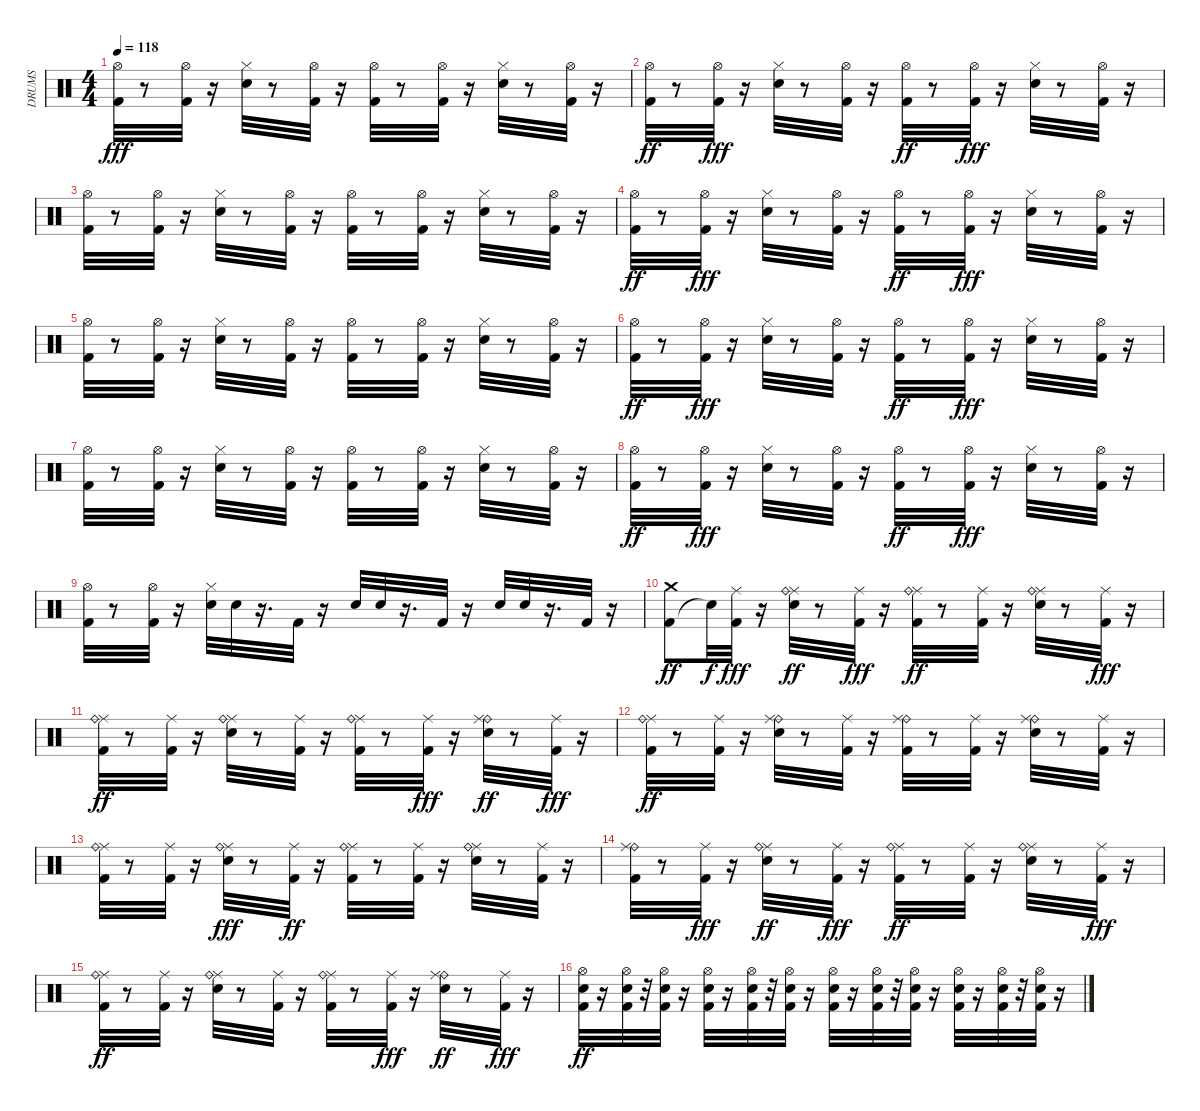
\track ("DRUMS" "DRUMS") {instrument percussion}
\staff {score}
\articulation defaults
\ts (4 4)
\tempo 118
\clef neutral
\ks c
("Hi-Hat (open)" "Kick (hit) 2").32{dy fff} r.8 ("Hi-Hat (open)" "Kick (hit) 2").32 r.16 ("Hi-Hat (closed)" "Snare (hit) 2").32 r.8 ("Hi-Hat (open)" "Kick (hit) 2").32 r.16 ("Hi-Hat (open)" "Kick (hit) 2").32 r.8 ("Hi-Hat (open)" "Kick (hit) 2").32 r.16 ("Hi-Hat (closed)" "Snare (hit) 2").32 r.8 ("Hi-Hat (open)" "Kick (hit) 2").32 r.16 |
("Kick (hit) 2" "Hi-Hat (open)").32{dy ff} r.8 ("Hi-Hat (open)" "Kick (hit) 2").32{dy fff} r.16 ("Hi-Hat (closed)" "Snare (hit) 2").32 r.8 ("Kick (hit) 2" "Hi-Hat (open)").32 r.16 ("Kick (hit) 2" "Hi-Hat (open)").32{dy ff} r.8 ("Hi-Hat (open)" "Kick (hit) 2").32{dy fff} r.16 ("Hi-Hat (closed)" "Snare (hit) 2").32 r.8 ("Hi-Hat (open)" "Kick (hit) 2").32 r.16 |
("Hi-Hat (open)" "Kick (hit) 2").32 r.8 ("Kick (hit) 2" "Hi-Hat (open)").32 r.16 ("Snare (hit) 2" "Hi-Hat (closed)").32 r.8 ("Hi-Hat (open)" "Kick (hit) 2").32 r.16 ("Hi-Hat (open)" "Kick (hit) 2").32 r.8 ("Hi-Hat (open)" "Kick (hit) 2").32 r.16 ("Hi-Hat (closed)" "Snare (hit) 2").32 r.8 ("Hi-Hat (open)" "Kick (hit) 2").32 r.16 |
("Kick (hit) 2" "Hi-Hat (open)").32{dy ff} r.8 ("Hi-Hat (open)" "Kick (hit) 2").32{dy fff} r.16 ("Hi-Hat (closed)" "Snare (hit) 2").32 r.8 ("Kick (hit) 2" "Hi-Hat (open)").32 r.16 ("Kick (hit) 2" "Hi-Hat (open)").32{dy ff} r.8 ("Hi-Hat (open)" "Kick (hit) 2").32{dy fff} r.16 ("Snare (hit) 2" "Hi-Hat (closed)").32 r.8 ("Hi-Hat (open)" "Kick (hit) 2").32 r.16 |
("Hi-Hat (open)" "Kick (hit) 2").32 r.8 ("Hi-Hat (open)" "Kick (hit) 2").32 r.16 ("Hi-Hat (closed)" "Snare (hit) 2").32 r.8 ("Hi-Hat (open)" "Kick (hit) 2").32 r.16 ("Hi-Hat (open)" "Kick (hit) 2").32 r.8 ("Hi-Hat (open)" "Kick (hit) 2").32 r.16 ("Hi-Hat (closed)" "Snare (hit) 2").32 r.8 ("Hi-Hat (open)" "Kick (hit) 2").32 r.16 |
("Kick (hit) 2" "Hi-Hat (open)").32{dy ff} r.8 ("Hi-Hat (open)" "Kick (hit) 2").32{dy fff} r.16 ("Hi-Hat (closed)" "Snare (hit) 2").32 r.8 ("Kick (hit) 2" "Hi-Hat (open)").32 r.16 ("Kick (hit) 2" "Hi-Hat (open)").32{dy ff} r.8 ("Hi-Hat (open)" "Kick (hit) 2").32{dy fff} r.16 ("Hi-Hat (closed)" "Snare (hit) 2").32 r.8 ("Hi-Hat (open)" "Kick (hit) 2").32 r.16 |
("Hi-Hat (open)" "Kick (hit) 2").32 r.8 ("Kick (hit) 2" "Hi-Hat (open)").32 r.16 ("Snare (hit) 2" "Hi-Hat (closed)").32 r.8 ("Hi-Hat (open)" "Kick (hit) 2").32 r.16 ("Hi-Hat (open)" "Kick (hit) 2").32 r.8 ("Hi-Hat (open)" "Kick (hit) 2").32 r.16 ("Hi-Hat (closed)" "Snare (hit) 2").32 r.8 ("Hi-Hat (open)" "Kick (hit) 2").32 r.16 |
("Kick (hit) 2" "Hi-Hat (open)").32{dy ff} r.8 ("Hi-Hat (open)" "Kick (hit) 2").32{dy fff} r.16 ("Hi-Hat (closed)" "Snare (hit) 2").32 r.8 ("Kick (hit) 2" "Hi-Hat (open)").32 r.16 ("Kick (hit) 2" "Hi-Hat (open)").32{dy ff} r.8 ("Hi-Hat (open)" "Kick (hit) 2").32{dy fff} r.16 ("Snare (hit) 2" "Hi-Hat (closed)").32 r.8 ("Hi-Hat (open)" "Kick (hit) 2").32 r.16 |
("Hi-Hat (open)" "Kick (hit) 2").32 r.8 ("Hi-Hat (open)" "Kick (hit) 2").32 r.16 ("Hi-Hat (closed)" "Snare (hit) 2").32 "Snare (hit) 2".32 r.16{d} "Kick (hit) 2".32 r.16 "Snare (hit) 2".32 "Snare (hit) 2".32 r.16{d} "Kick (hit) 2".32 r.16 "Snare (hit) 2".32 "Snare (hit) 2".32 r.16{d} "Kick (hit) 2".32 r.16 |
("Kick (hit) 2" "Crash medium (hit)").8{dy ff} "Snare (hit)"{t}.32{dy f} ("Ride (middle)" "Kick (hit) 2").32{dy fff} r.16 ("Snare (hit) 2" "Ride (middle)" "Ride (bell)").32{dy ff} r.8 ("Ride (middle)" "Kick (hit) 2").32{dy fff} r.16 ("Kick (hit) 2" "Ride (middle)" "Ride (bell)").32{dy ff} r.8 ("Kick (hit) 2" "Ride (middle)").32 r.16 ("Snare (hit) 2" "Ride (middle)" "Ride (bell)").32 r.8 ("Ride (middle)" "Kick (hit) 2").32{dy fff} r.16 |
("Kick (hit) 2" "Ride (middle)" "Ride (bell)").32{dy ff} r.8 ("Kick (hit) 2" "Ride (middle)").32 r.16 ("Snare (hit) 2" "Ride (middle)" "Ride (bell)").32 r.8 ("Kick (hit) 2" "Ride (middle)").32 r.16 ("Kick (hit) 2" "Ride (middle)" "Ride (bell)").32 r.8 ("Ride (middle)" "Kick (hit) 2").32{dy fff} r.16 ("Ride (bell)" "Snare (hit) 2" "Ride (middle)").32{dy ff} r.8 ("Ride (middle)" "Kick (hit) 2").32{dy fff} r.16 |
("Kick (hit) 2" "Ride (middle)" "Ride (bell)").32{dy ff} r.8 ("Kick (hit) 2" "Ride (middle)").32 r.16 ("Ride (bell)" "Snare (hit) 2" "Ride (middle)").32 r.8 ("Kick (hit) 2" "Ride (middle)").32 r.16 ("Ride (bell)" "Kick (hit) 2" "Ride (middle)").32 r.8 ("Kick (hit) 2" "Ride (middle)").32 r.16 ("Ride (bell)" "Snare (hit) 2" "Ride (middle)").32 r.8 ("Kick (hit) 2" "Ride (middle)").32 r.16 |
("Kick (hit) 2" "Ride (middle)" "Ride (bell)").32 r.8 ("Kick (hit) 2" "Ride (middle)").32 r.16 ("Ride (middle)" "Snare (hit) 2" "Ride (bell)").32{dy fff} r.8 ("Kick (hit) 2" "Ride (middle)").32{dy ff} r.16 ("Kick (hit) 2" "Ride (middle)" "Ride (bell)").32 r.8 ("Kick (hit) 2" "Ride (middle)").32 r.16 ("Snare (hit) 2" "Ride (middle)" "Ride (bell)").32 r.8 ("Kick (hit) 2" "Ride (middle)").32 r.16 |
("Kick (hit) 2" "Ride (bell)" "Ride (middle)").32 r.8 ("Ride (middle)" "Kick (hit) 2").32{dy fff} r.16 ("Snare (hit) 2" "Ride (middle)" "Ride (bell)").32{dy ff} r.8 ("Ride (middle)" "Kick (hit) 2").32{dy fff} r.16 ("Kick (hit) 2" "Ride (middle)" "Ride (bell)").32{dy ff} r.8 ("Kick (hit) 2" "Ride (middle)").32 r.16 ("Snare (hit) 2" "Ride (middle)" "Ride (bell)").32 r.8 ("Ride (middle)" "Kick (hit) 2").32{dy fff} r.16 |
("Kick (hit) 2" "Ride (middle)" "Ride (bell)").32{dy ff} r.8 ("Kick (hit) 2" "Ride (middle)").32 r.16 ("Snare (hit) 2" "Ride (middle)" "Ride (bell)").32 r.8 ("Kick (hit) 2" "Ride (middle)").32 r.16 ("Kick (hit) 2" "Ride (middle)" "Ride (bell)").32 r.8 ("Ride (middle)" "Kick (hit) 2").32{dy fff} r.16 ("Ride (bell)" "Snare (hit) 2" "Ride (middle)").32{dy ff} r.8 ("Ride (middle)" "Kick (hit) 2").32{dy fff} r.16 |
("Hi-Hat (open)" "Kick (hit) 2" "Snare (hit) 2").32{dy ff} r.16 ("Hi-Hat (open)" "Kick (hit) 2" "Snare (hit) 2").32 r.32 ("Hi-Hat (open)" "Kick (hit) 2" "Snare (hit) 2").32 r.16 ("Hi-Hat (open)" "Kick (hit) 2" "Snare (hit) 2").32 r.16 ("Hi-Hat (open)" "Kick (hit) 2" "Snare (hit) 2").32 r.32 ("Hi-Hat (open)" "Kick (hit) 2" "Snare (hit) 2").32 r.16 ("Hi-Hat (open)" "Kick (hit) 2" "Snare (hit) 2").32 r.16 ("Hi-Hat (open)" "Kick (hit) 2" "Snare (hit) 2").32 r.32 ("Hi-Hat (open)" "Kick (hit) 2" "Snare (hit) 2").32 r.16 ("Hi-Hat (open)" "Kick (hit) 2" "Snare (hit) 2").32 r.16 ("Hi-Hat (open)" "Kick (hit) 2" "Snare (hit) 2").32 r.32 ("Hi-Hat (open)" "Kick (hit) 2" "Snare (hit) 2").32 r.16
